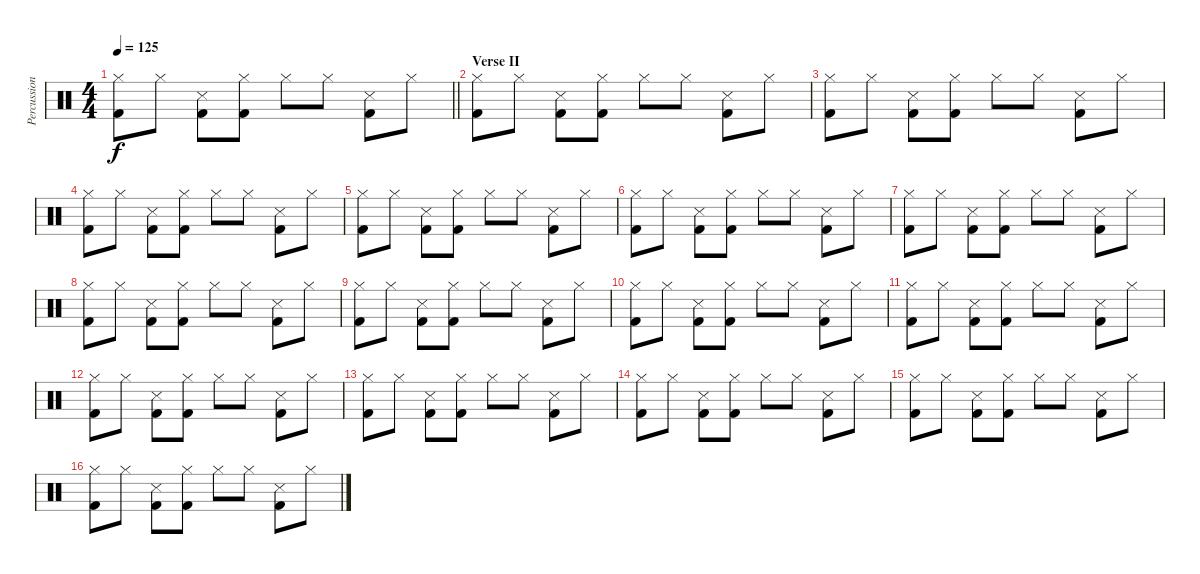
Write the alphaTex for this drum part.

\track ("Percussion" "Percussion") {instrument percussion}
\staff {score}
\articulation defaults
\ts (4 4)
\tempo 125
\clef neutral
\barLineRight lightlight
\ks c
("Hi-Hat (closed)" "Kick (hit) 2").8{dy f} "Hi-Hat (closed)".8 ("Snare (side stick) 3" "Kick (hit) 2").8 ("Hi-Hat (closed)" "Kick (hit) 2").8 "Hi-Hat (closed)".8 "Hi-Hat (closed)".8 ("Snare (side stick) 3" "Kick (hit) 2").8 "Hi-Hat (closed)".8 |
\section ("" "Verse II")
("Hi-Hat (closed)" "Kick (hit) 2").8 "Hi-Hat (closed)".8 ("Snare (side stick) 3" "Kick (hit) 2").8 ("Hi-Hat (closed)" "Kick (hit) 2").8 "Hi-Hat (closed)".8 "Hi-Hat (closed)".8 ("Snare (side stick) 3" "Kick (hit) 2").8 "Hi-Hat (closed)".8 |
("Hi-Hat (closed)" "Kick (hit) 2").8 "Hi-Hat (closed)".8 ("Snare (side stick) 3" "Kick (hit) 2").8 ("Hi-Hat (closed)" "Kick (hit) 2").8 "Hi-Hat (closed)".8 "Hi-Hat (closed)".8 ("Snare (side stick) 3" "Kick (hit) 2").8 "Hi-Hat (closed)".8 |
("Hi-Hat (closed)" "Kick (hit) 2").8 "Hi-Hat (closed)".8 ("Snare (side stick) 3" "Kick (hit) 2").8 ("Hi-Hat (closed)" "Kick (hit) 2").8 "Hi-Hat (closed)".8 "Hi-Hat (closed)".8 ("Snare (side stick) 3" "Kick (hit) 2").8 "Hi-Hat (closed)".8 |
("Hi-Hat (closed)" "Kick (hit) 2").8 "Hi-Hat (closed)".8 ("Snare (side stick) 3" "Kick (hit) 2").8 ("Hi-Hat (closed)" "Kick (hit) 2").8 "Hi-Hat (closed)".8 "Hi-Hat (closed)".8 ("Snare (side stick) 3" "Kick (hit) 2").8 "Hi-Hat (closed)".8 |
("Hi-Hat (closed)" "Kick (hit) 2").8 "Hi-Hat (closed)".8 ("Snare (side stick) 3" "Kick (hit) 2").8 ("Hi-Hat (closed)" "Kick (hit) 2").8 "Hi-Hat (closed)".8 "Hi-Hat (closed)".8 ("Snare (side stick) 3" "Kick (hit) 2").8 "Hi-Hat (closed)".8 |
("Hi-Hat (closed)" "Kick (hit) 2").8 "Hi-Hat (closed)".8 ("Snare (side stick) 3" "Kick (hit) 2").8 ("Hi-Hat (closed)" "Kick (hit) 2").8 "Hi-Hat (closed)".8 "Hi-Hat (closed)".8 ("Snare (side stick) 3" "Kick (hit) 2").8 "Hi-Hat (closed)".8 |
("Hi-Hat (closed)" "Kick (hit) 2").8 "Hi-Hat (closed)".8 ("Snare (side stick) 3" "Kick (hit) 2").8 ("Hi-Hat (closed)" "Kick (hit) 2").8 "Hi-Hat (closed)".8 "Hi-Hat (closed)".8 ("Snare (side stick) 3" "Kick (hit) 2").8 "Hi-Hat (closed)".8 |
("Hi-Hat (closed)" "Kick (hit) 2").8 "Hi-Hat (closed)".8 ("Snare (side stick) 3" "Kick (hit) 2").8 ("Hi-Hat (closed)" "Kick (hit) 2").8 "Hi-Hat (closed)".8 "Hi-Hat (closed)".8 ("Snare (side stick) 3" "Kick (hit) 2").8 "Hi-Hat (closed)".8 |
("Hi-Hat (closed)" "Kick (hit) 2").8 "Hi-Hat (closed)".8 ("Snare (side stick) 3" "Kick (hit) 2").8 ("Hi-Hat (closed)" "Kick (hit) 2").8 "Hi-Hat (closed)".8 "Hi-Hat (closed)".8 ("Snare (side stick) 3" "Kick (hit) 2").8 "Hi-Hat (closed)".8 |
("Hi-Hat (closed)" "Kick (hit) 2").8 "Hi-Hat (closed)".8 ("Snare (side stick) 3" "Kick (hit) 2").8 ("Hi-Hat (closed)" "Kick (hit) 2").8 "Hi-Hat (closed)".8 "Hi-Hat (closed)".8 ("Snare (side stick) 3" "Kick (hit) 2").8 "Hi-Hat (closed)".8 |
("Hi-Hat (closed)" "Kick (hit) 2").8 "Hi-Hat (closed)".8 ("Snare (side stick) 3" "Kick (hit) 2").8 ("Hi-Hat (closed)" "Kick (hit) 2").8 "Hi-Hat (closed)".8 "Hi-Hat (closed)".8 ("Snare (side stick) 3" "Kick (hit) 2").8 "Hi-Hat (closed)".8 |
("Hi-Hat (closed)" "Kick (hit) 2").8 "Hi-Hat (closed)".8 ("Snare (side stick) 3" "Kick (hit) 2").8 ("Hi-Hat (closed)" "Kick (hit) 2").8 "Hi-Hat (closed)".8 "Hi-Hat (closed)".8 ("Snare (side stick) 3" "Kick (hit) 2").8 "Hi-Hat (closed)".8 |
("Hi-Hat (closed)" "Kick (hit) 2").8 "Hi-Hat (closed)".8 ("Snare (side stick) 3" "Kick (hit) 2").8 ("Hi-Hat (closed)" "Kick (hit) 2").8 "Hi-Hat (closed)".8 "Hi-Hat (closed)".8 ("Snare (side stick) 3" "Kick (hit) 2").8 "Hi-Hat (closed)".8 |
("Hi-Hat (closed)" "Kick (hit) 2").8 "Hi-Hat (closed)".8 ("Snare (side stick) 3" "Kick (hit) 2").8 ("Hi-Hat (closed)" "Kick (hit) 2").8 "Hi-Hat (closed)".8 "Hi-Hat (closed)".8 ("Snare (side stick) 3" "Kick (hit) 2").8 "Hi-Hat (closed)".8 |
("Hi-Hat (closed)" "Kick (hit) 2").8 "Hi-Hat (closed)".8 ("Snare (side stick) 3" "Kick (hit) 2").8 ("Hi-Hat (closed)" "Kick (hit) 2").8 "Hi-Hat (closed)".8 "Hi-Hat (closed)".8 ("Snare (side stick) 3" "Kick (hit) 2").8 "Hi-Hat (closed)".8
